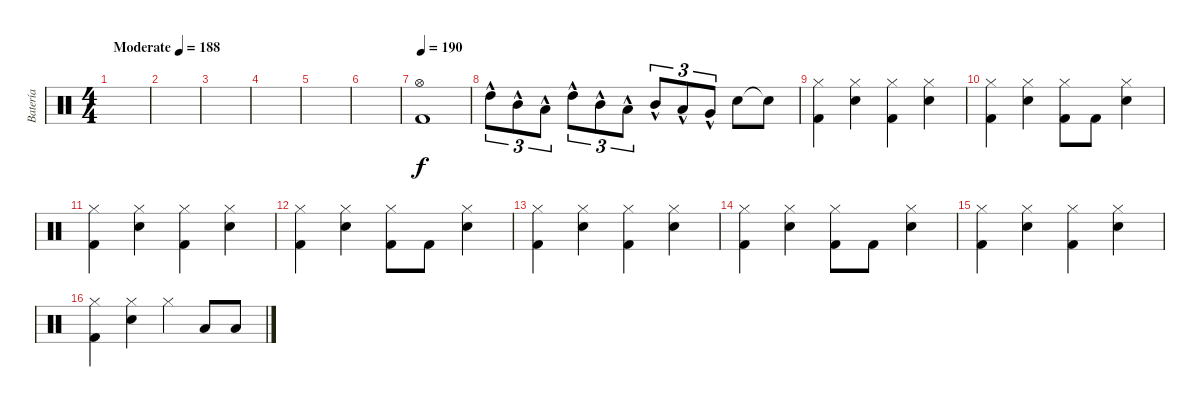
\track ("Batería" "Batería") {instrument percussion}
\staff {score}
\articulation defaults
\ts (4 4)
\tempo (188 "Moderate")
\clef neutral
\ks c
|
|
|
|
|
|
\tempo 190
("Hi-Hat (open)" "Kick (hit) 2").1 |
"High Tom (hit)"{hac}.8{tu (3 2)} "Mid Tom (hit)"{hac}.8{tu (3 2)} "Low Tom (hit)"{hac}.8{tu (3 2)} "High Tom (hit)"{hac}.8{tu (3 2)} "Mid Tom (hit)"{hac}.8{tu (3 2)} "Low Tom (hit)"{hac}.8{tu (3 2)} "Mid Tom (hit)"{hac}.8{tu (3 2)} "Low Tom (hit)"{hac}.8{tu (3 2)} "Very Low Tom (hit)"{hac}.8{tu (3 2)} "Electric Snare (hit)".8 "Snare (hit)"{t}.8 |
("Kick (hit) 2" "Hi-Hat (closed)").4 ("Electric Snare (hit)" "Hi-Hat (closed)").4 ("Kick (hit) 2" "Hi-Hat (closed)").4 ("Electric Snare (hit)" "Hi-Hat (closed)").4 |
("Kick (hit) 2" "Hi-Hat (closed)").4 ("Electric Snare (hit)" "Hi-Hat (closed)").4 ("Kick (hit) 2" "Hi-Hat (closed)").8 "Kick (hit) 2".8 ("Electric Snare (hit)" "Hi-Hat (closed)").4 |
("Kick (hit) 2" "Hi-Hat (closed)").4 ("Electric Snare (hit)" "Hi-Hat (closed)").4 ("Kick (hit) 2" "Hi-Hat (closed)").4 ("Electric Snare (hit)" "Hi-Hat (closed)").4 |
("Kick (hit) 2" "Hi-Hat (closed)").4 ("Electric Snare (hit)" "Hi-Hat (closed)").4 ("Kick (hit) 2" "Hi-Hat (closed)").8 "Kick (hit) 2".8 ("Electric Snare (hit)" "Hi-Hat (closed)").4 |
("Kick (hit) 2" "Hi-Hat (closed)").4 ("Electric Snare (hit)" "Hi-Hat (closed)").4 ("Kick (hit) 2" "Hi-Hat (closed)").4 ("Electric Snare (hit)" "Hi-Hat (closed)").4 |
("Kick (hit) 2" "Hi-Hat (closed)").4 ("Electric Snare (hit)" "Hi-Hat (closed)").4 ("Kick (hit) 2" "Hi-Hat (closed)").8 "Kick (hit) 2".8 ("Electric Snare (hit)" "Hi-Hat (closed)").4 |
("Kick (hit) 2" "Hi-Hat (closed)").4 ("Electric Snare (hit)" "Hi-Hat (closed)").4 ("Kick (hit) 2" "Hi-Hat (closed)").4 ("Electric Snare (hit)" "Hi-Hat (closed)").4 |
("Kick (hit) 2" "Hi-Hat (closed)").4 ("Electric Snare (hit)" "Hi-Hat (closed)").4 "Hi-Hat (closed)".4 "Low Floor Tom (hit)".8 "Low Floor Tom (hit)".8
